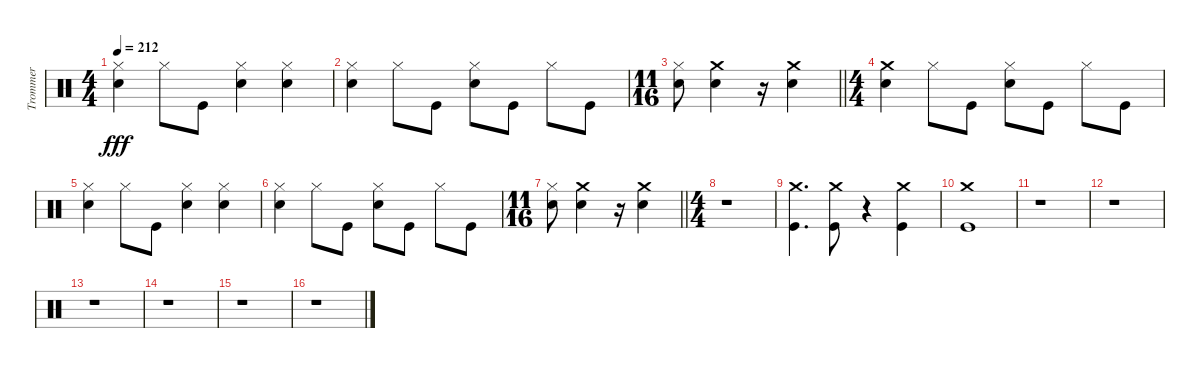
\track ("Trommer" "Trommer") {instrument percussion}
\staff {score}
\articulation defaults
\ts (4 4)
\tempo 212
\clef neutral
\ks c
("Snare (hit) 2" "Hi-Hat (closed)").4{dy fff} "Hi-Hat (closed)".8 "Kick (hit)".8 ("Hi-Hat (closed)" "Snare (hit) 2").4 ("Snare (hit) 2" "Hi-Hat (closed)").4 |
("Snare (hit) 2" "Hi-Hat (closed)").4 "Hi-Hat (closed)".8 "Kick (hit)".8 ("Snare (hit) 2" "Hi-Hat (closed)").8 "Kick (hit)".8 "Hi-Hat (closed)".8 "Kick (hit)".8 |
\ts (11 16)
\barLineRight lightlight
("Snare (hit) 2" "Hi-Hat (closed)").8 ("Crash medium (hit)" "Snare (hit) 2").4 r.16 ("Crash medium (hit)" "Snare (hit) 2").4 |
\ts (4 4)
("Snare (hit) 2" "Crash medium (hit)").4 "Hi-Hat (closed)".8 "Kick (hit)".8 ("Hi-Hat (closed)" "Snare (hit) 2").8 "Kick (hit)".8 "Hi-Hat (closed)".8 "Kick (hit)".8 |
("Hi-Hat (closed)" "Snare (hit) 2").4 "Hi-Hat (closed)".8 "Kick (hit)".8 ("Hi-Hat (closed)" "Snare (hit) 2").4 ("Snare (hit) 2" "Hi-Hat (closed)").4 |
("Hi-Hat (closed)" "Snare (hit) 2").4 "Hi-Hat (closed)".8 "Kick (hit)".8 ("Hi-Hat (closed)" "Snare (hit) 2").8 "Kick (hit)".8 "Hi-Hat (closed)".8 "Kick (hit)".8 |
\ts (11 16)
\barLineRight lightlight
("Hi-Hat (closed)" "Snare (hit) 2").8 ("Snare (hit) 2" "Crash medium (hit)").4 r.16 ("Crash medium (hit)" "Snare (hit) 2").4 |
\ts (4 4)
r.1 |
("Kick (hit)" "Crash medium (hit)").4{d} ("Kick (hit)" "Crash medium (hit)").8 r.4 ("Kick (hit)" "Crash medium (hit)").4 |
("Crash medium (hit)" "Kick (hit)").1 |
r.1 |
r.1 |
r.1 |
r.1 |
r.1 |
r.1
